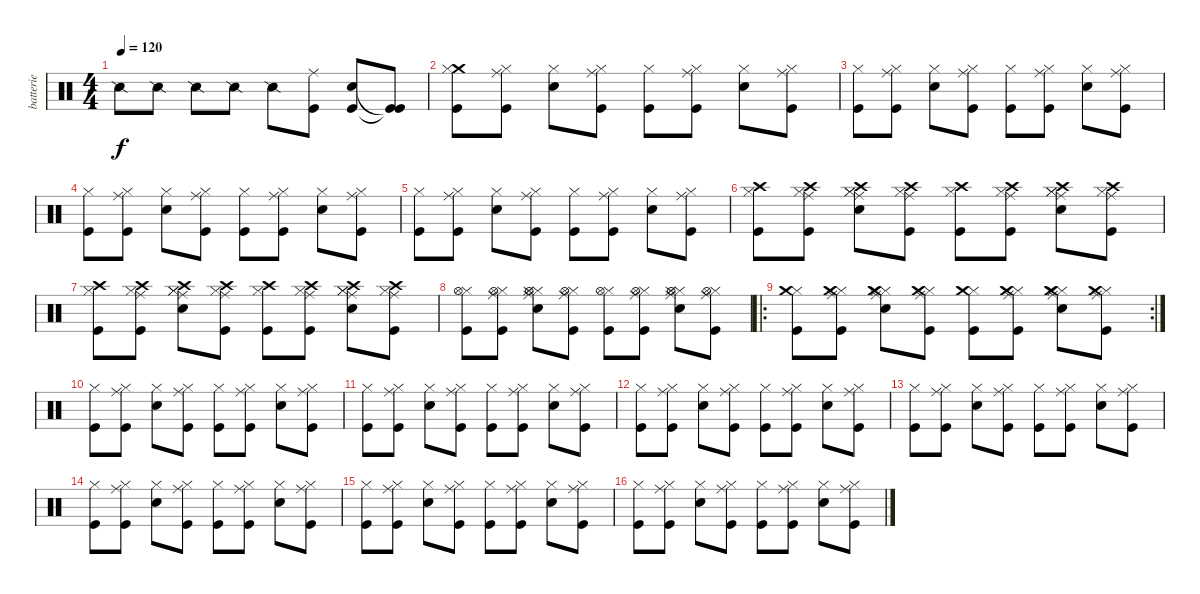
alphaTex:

\track ("batterie" "batterie") {instrument percussion}
\staff {score}
\articulation defaults
\ts (4 4)
\tempo 120
\clef neutral
\ks c "Snare (side stick) 2".8{dy f} "Snare (side stick) 2".8 "Snare (side stick) 2".8 "Snare (side stick) 2".8 "Snare (side stick) 2".8
("Kick (hit)" "Ride (middle)").8 ("Kick (hit)" "Electric Snare (hit)").8 ("Kick (hit)"{t} "Kick (hit)"{t}).8 |
("Kick (hit)" "Crash medium (hit)" "Hi-Hat (closed)").8 ("Kick (hit)" "Ride (middle)" "Hi-Hat (closed)").8 ("Electric Snare (hit)" "Hi-Hat (closed)").8 ("Kick (hit)" "Ride (middle)" "Hi-Hat (closed)").8 ("Kick (hit)" "Hi-Hat (closed)").8 ("Kick (hit)" "Ride (middle)" "Hi-Hat (closed)").8 ("Electric Snare (hit)" "Hi-Hat (closed)").8 ("Kick (hit)" "Ride (middle)" "Hi-Hat (closed)").8 |
("Kick (hit)" "Hi-Hat (closed)").8 ("Kick (hit)" "Ride (middle)" "Hi-Hat (closed)").8 ("Electric Snare (hit)" "Hi-Hat (closed)").8 ("Kick (hit)" "Ride (middle)" "Hi-Hat (closed)").8 ("Kick (hit)" "Hi-Hat (closed)").8 ("Kick (hit)" "Ride (middle)" "Hi-Hat (closed)").8 ("Electric Snare (hit)" "Hi-Hat (closed)").8 ("Kick (hit)" "Ride (middle)" "Hi-Hat (closed)").8 |
("Kick (hit)" "Hi-Hat (closed)").8 ("Kick (hit)" "Ride (middle)" "Hi-Hat (closed)").8 ("Electric Snare (hit)" "Hi-Hat (closed)").8 ("Kick (hit)" "Ride (middle)" "Hi-Hat (closed)").8 ("Kick (hit)" "Hi-Hat (closed)").8 ("Kick (hit)" "Ride (middle)" "Hi-Hat (closed)").8 ("Electric Snare (hit)" "Hi-Hat (closed)").8 ("Kick (hit)" "Ride (middle)" "Hi-Hat (closed)").8 |
("Kick (hit)" "Hi-Hat (closed)").8 ("Kick (hit)" "Ride (middle)" "Hi-Hat (closed)").8 ("Electric Snare (hit)" "Hi-Hat (closed)").8 ("Kick (hit)" "Ride (middle)" "Hi-Hat (closed)").8 ("Kick (hit)" "Hi-Hat (closed)").8 ("Kick (hit)" "Ride (middle)" "Hi-Hat (closed)").8 ("Electric Snare (hit)" "Hi-Hat (closed)").8 ("Kick (hit)" "Ride (middle)" "Hi-Hat (closed)").8 |
("Kick (hit)" "Hi-Hat (closed)" "Crash high (hit)").8 ("Kick (hit)" "Ride (middle)" "Hi-Hat (closed)" "Crash high (hit)").8 ("Electric Snare (hit)" "Ride (middle)" "Hi-Hat (closed)" "Hi-Hat (closed)" "Crash high (hit)").8 ("Kick (hit)" "Ride (middle)" "Hi-Hat (closed)" "Crash high (hit)").8 ("Kick (hit)" "Hi-Hat (closed)" "Crash high (hit)").8 ("Kick (hit)" "Ride (middle)" "Hi-Hat (closed)" "Crash high (hit)").8 ("Electric Snare (hit)" "Ride (middle)" "Hi-Hat (closed)" "Hi-Hat (closed)" "Crash high (hit)").8 ("Kick (hit)" "Ride (middle)" "Hi-Hat (closed)" "Crash high (hit)").8 |
("Kick (hit)" "Hi-Hat (closed)" "Crash high (hit)").8 ("Kick (hit)" "Ride (middle)" "Hi-Hat (closed)" "Crash high (hit)").8 ("Electric Snare (hit)" "Ride (middle)" "Hi-Hat (closed)" "Hi-Hat (closed)" "Crash high (hit)").8 ("Kick (hit)" "Ride (middle)" "Hi-Hat (closed)" "Crash high (hit)").8 ("Kick (hit)" "Hi-Hat (closed)" "Crash high (hit)").8 ("Kick (hit)" "Ride (middle)" "Hi-Hat (closed)" "Crash high (hit)").8 ("Electric Snare (hit)" "Ride (middle)" "Hi-Hat (closed)" "Hi-Hat (closed)" "Crash high (hit)").8 ("Kick (hit)" "Ride (middle)" "Hi-Hat (closed)" "Crash high (hit)").8 |
("Kick (hit)" "Hi-Hat (closed)" "Hi-Hat (open)").8 ("Kick (hit)" "Ride (middle)" "Hi-Hat (closed)" "Hi-Hat (open)").8 ("Electric Snare (hit)" "Ride (middle)" "Hi-Hat (closed)" "Hi-Hat (closed)" "Hi-Hat (open)").8 ("Kick (hit)" "Ride (middle)" "Hi-Hat (closed)" "Hi-Hat (open)").8 ("Kick (hit)" "Hi-Hat (closed)" "Hi-Hat (open)").8 ("Kick (hit)" "Ride (middle)" "Hi-Hat (closed)" "Hi-Hat (open)").8 ("Electric Snare (hit)" "Ride (middle)" "Hi-Hat (closed)" "Hi-Hat (closed)" "Hi-Hat (open)").8 ("Kick (hit)" "Ride (middle)" "Hi-Hat (closed)" "Hi-Hat (open)").8 |
\ro
\rc 2
("Kick (hit)" "Hi-Hat (closed)" "Crash medium (hit)").8 ("Kick (hit)" "Ride (middle)" "Hi-Hat (closed)" "Crash medium (hit)").8 ("Electric Snare (hit)" "Ride (middle)" "Hi-Hat (closed)" "Hi-Hat (closed)" "Crash medium (hit)").8 ("Kick (hit)" "Ride (middle)" "Hi-Hat (closed)" "Crash medium (hit)").8 ("Kick (hit)" "Hi-Hat (closed)" "Crash medium (hit)").8 ("Kick (hit)" "Ride (middle)" "Hi-Hat (closed)" "Crash medium (hit)").8 ("Electric Snare (hit)" "Ride (middle)" "Hi-Hat (closed)" "Hi-Hat (closed)" "Crash medium (hit)").8 ("Kick (hit)" "Ride (middle)" "Hi-Hat (closed)" "Crash medium (hit)").8 |
("Kick (hit)" "Hi-Hat (closed)").8 ("Kick (hit)" "Ride (middle)" "Hi-Hat (closed)").8 ("Electric Snare (hit)" "Hi-Hat (closed)").8 ("Kick (hit)" "Ride (middle)" "Hi-Hat (closed)").8 ("Kick (hit)" "Hi-Hat (closed)").8 ("Kick (hit)" "Ride (middle)" "Hi-Hat (closed)").8 ("Electric Snare (hit)" "Hi-Hat (closed)").8 ("Kick (hit)" "Ride (middle)" "Hi-Hat (closed)").8 |
("Kick (hit)" "Hi-Hat (closed)").8 ("Kick (hit)" "Ride (middle)" "Hi-Hat (closed)").8 ("Electric Snare (hit)" "Hi-Hat (closed)").8 ("Kick (hit)" "Ride (middle)" "Hi-Hat (closed)").8 ("Kick (hit)" "Hi-Hat (closed)").8 ("Kick (hit)" "Ride (middle)" "Hi-Hat (closed)").8 ("Electric Snare (hit)" "Hi-Hat (closed)").8 ("Kick (hit)" "Ride (middle)" "Hi-Hat (closed)").8 |
("Kick (hit)" "Hi-Hat (closed)").8 ("Kick (hit)" "Ride (middle)" "Hi-Hat (closed)").8 ("Electric Snare (hit)" "Hi-Hat (closed)").8 ("Kick (hit)" "Ride (middle)" "Hi-Hat (closed)").8 ("Kick (hit)" "Hi-Hat (closed)").8 ("Kick (hit)" "Ride (middle)" "Hi-Hat (closed)").8 ("Electric Snare (hit)" "Hi-Hat (closed)").8 ("Kick (hit)" "Ride (middle)" "Hi-Hat (closed)").8 |
("Kick (hit)" "Hi-Hat (closed)").8 ("Kick (hit)" "Ride (middle)" "Hi-Hat (closed)").8 ("Electric Snare (hit)" "Hi-Hat (closed)").8 ("Kick (hit)" "Ride (middle)" "Hi-Hat (closed)").8 ("Kick (hit)" "Hi-Hat (closed)").8 ("Kick (hit)" "Ride (middle)" "Hi-Hat (closed)").8 ("Electric Snare (hit)" "Hi-Hat (closed)").8 ("Kick (hit)" "Ride (middle)" "Hi-Hat (closed)").8 |
("Kick (hit)" "Hi-Hat (closed)").8 ("Kick (hit)" "Ride (middle)" "Hi-Hat (closed)").8 ("Electric Snare (hit)" "Hi-Hat (closed)").8 ("Kick (hit)" "Ride (middle)" "Hi-Hat (closed)").8 ("Kick (hit)" "Hi-Hat (closed)").8 ("Kick (hit)" "Ride (middle)" "Hi-Hat (closed)").8 ("Electric Snare (hit)" "Hi-Hat (closed)").8 ("Kick (hit)" "Ride (middle)" "Hi-Hat (closed)").8 |
("Kick (hit)" "Hi-Hat (closed)").8 ("Kick (hit)" "Ride (middle)" "Hi-Hat (closed)").8 ("Electric Snare (hit)" "Hi-Hat (closed)").8 ("Kick (hit)" "Ride (middle)" "Hi-Hat (closed)").8 ("Kick (hit)" "Hi-Hat (closed)").8 ("Kick (hit)" "Ride (middle)" "Hi-Hat (closed)").8 ("Electric Snare (hit)" "Hi-Hat (closed)").8 ("Kick (hit)" "Ride (middle)" "Hi-Hat (closed)").8 |
("Kick (hit)" "Hi-Hat (closed)").8 ("Kick (hit)" "Ride (middle)" "Hi-Hat (closed)").8 ("Electric Snare (hit)" "Hi-Hat (closed)").8 ("Kick (hit)" "Ride (middle)" "Hi-Hat (closed)").8 ("Kick (hit)" "Hi-Hat (closed)").8 ("Kick (hit)" "Ride (middle)" "Hi-Hat (closed)").8 ("Electric Snare (hit)" "Hi-Hat (closed)").8 ("Kick (hit)" "Ride (middle)" "Hi-Hat (closed)").8
